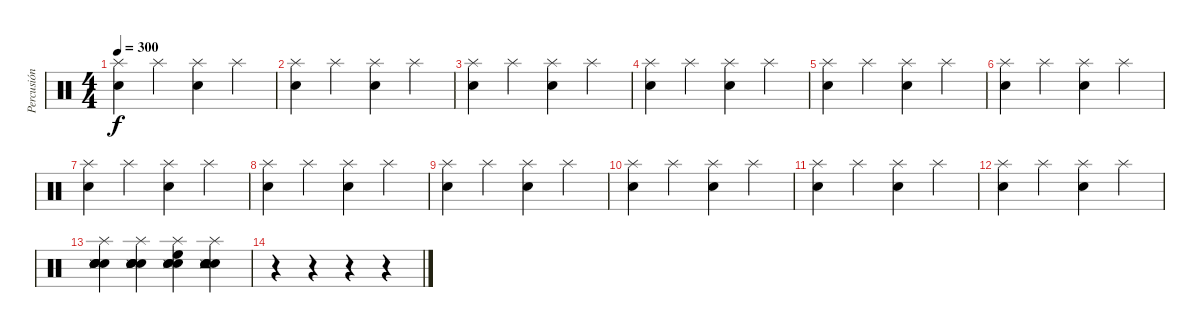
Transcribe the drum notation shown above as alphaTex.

\track ("Percusión" "Percusión") {instrument percussion}
\staff {score}
\articulation defaults
\ts (4 4)
\tempo 300
\clef neutral
\ks c
("Electric Snare (hit)" "Splash (hit)").4{dy f} "Splash (hit)".4 ("Electric Snare (hit)" "Splash (hit)").4 "Splash (hit)".4 |
("Electric Snare (hit)" "Splash (hit)").4 "Splash (hit)".4 ("Electric Snare (hit)" "Splash (hit)").4 "Splash (hit)".4 |
("Electric Snare (hit)" "Splash (hit)").4 "Splash (hit)".4 ("Electric Snare (hit)" "Splash (hit)").4 "Splash (hit)".4 |
("Electric Snare (hit)" "Splash (hit)").4 "Splash (hit)".4 ("Electric Snare (hit)" "Splash (hit)").4 "Splash (hit)".4 |
("Electric Snare (hit)" "Splash (hit)").4 "Splash (hit)".4 ("Electric Snare (hit)" "Splash (hit)").4 "Splash (hit)".4 |
("Electric Snare (hit)" "Splash (hit)").4 "Splash (hit)".4 ("Electric Snare (hit)" "Splash (hit)").4 "Splash (hit)".4 |
("Electric Snare (hit)" "Splash (hit)").4 "Splash (hit)".4 ("Electric Snare (hit)" "Splash (hit)").4 "Splash (hit)".4 |
("Electric Snare (hit)" "Splash (hit)").4 "Splash (hit)".4 ("Electric Snare (hit)" "Splash (hit)").4 "Splash (hit)".4 |
("Electric Snare (hit)" "Splash (hit)").4 "Splash (hit)".4 ("Electric Snare (hit)" "Splash (hit)").4 "Splash (hit)".4 |
("Electric Snare (hit)" "Splash (hit)").4 "Splash (hit)".4 ("Electric Snare (hit)" "Splash (hit)").4 "Splash (hit)".4 |
("Electric Snare (hit)" "Splash (hit)").4 "Splash (hit)".4 ("Electric Snare (hit)" "Splash (hit)").4 "Splash (hit)".4 |
("Electric Snare (hit)" "Splash (hit)").4 "Splash (hit)".4 ("Electric Snare (hit)" "Splash (hit)").4 "Splash (hit)".4 |
("Electric Snare (hit)" "Splash (hit)" "Metronome (hit)" "Snare (hit)" "Snare (hit)" "Snare (hit)").4 ("Electric Snare (hit)" "Splash (hit)" "Metronome (hit)" "Snare (hit)" "Snare (hit)" "Snare (hit)").4 ("Electric Snare (hit)" "Splash (hit)" "Metronome (hit)" "Snare (hit)" "High Floor Tom (hit)" "Snare (hit)").4 ("Electric Snare (hit)" "Splash (hit)" "Metronome (hit)" "Snare (hit)" "Tambourine (hit)" "Snare (hit)").4 |
r.4 r.4 r.4 r.4
